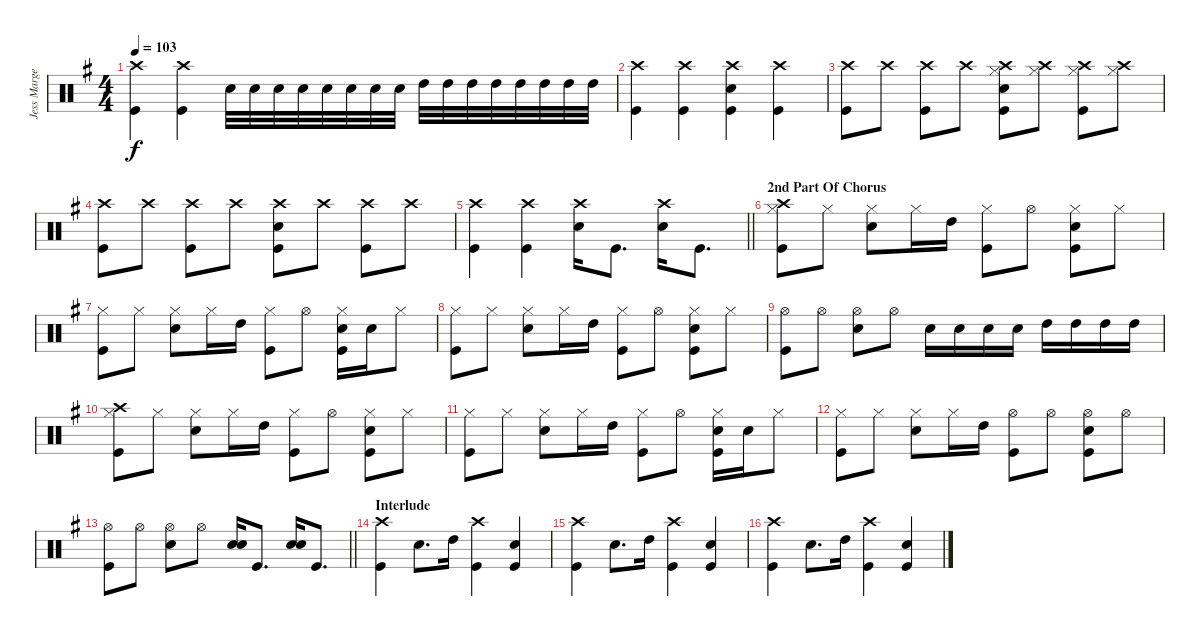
\track ("Jess Margera" "Jess Marge") {instrument percussion}
\staff {score}
\articulation defaults
\ts (4 4)
\tempo 103
\clef neutral
\ks g
("Crash high (hit)" "Kick (hit)").4{dy f} ("Crash high (hit)" "Kick (hit)").4 "Snare (hit) 2".32 "Snare (hit) 2".32 "Snare (hit) 2".32 "Snare (hit) 2".32 "Snare (hit) 2".32 "Snare (hit) 2".32 "Snare (hit) 2".32 "Snare (hit) 2".32 "High Tom (hit)".32 "High Tom (hit)".32 "High Tom (hit)".32 "High Tom (hit)".32 "High Tom (hit)".32 "High Tom (hit)".32 "High Tom (hit)".32 "High Tom (hit)".32 |
("Crash high (hit)" "Kick (hit)").4 ("Crash high (hit)" "Kick (hit)").4 ("Crash high (hit)" "Snare (hit) 2" "Kick (hit)").4 ("Crash high (hit)" "Kick (hit)").4 |
("Crash high (hit)" "Kick (hit)").8 "Crash high (hit)".8 ("Crash high (hit)" "Kick (hit)").8 "Crash high (hit)".8 ("Crash high (hit)" "Hi-Hat (closed)" "Snare (hit) 2" "Kick (hit)").8 ("Crash high (hit)" "Hi-Hat (closed)").8 ("Crash high (hit)" "Hi-Hat (closed)" "Kick (hit)").8 ("Crash high (hit)" "Hi-Hat (closed)").8 |
("Crash high (hit)" "Kick (hit)").8 "Crash high (hit)".8 ("Crash high (hit)" "Kick (hit)").8 "Crash high (hit)".8 ("Crash high (hit)" "Snare (hit) 2" "Kick (hit)").8 "Crash high (hit)".8 ("Crash high (hit)" "Kick (hit)").8 "Crash high (hit)".8 |
\barLineRight lightlight
("Crash high (hit)" "Kick (hit)").4 ("Crash high (hit)" "Kick (hit)").4 ("Crash high (hit)" "Snare (hit) 2").16 "Kick (hit)".8{d} ("Crash high (hit)" "Snare (hit) 2").16 "Kick (hit)".8{d} |
\section ("" "2nd Part Of Chorus")
("Crash high (hit)" "Hi-Hat (closed)" "Kick (hit)").8 "Hi-Hat (closed)".8 ("Hi-Hat (closed)" "Snare (hit) 2").8 "Hi-Hat (closed)".16 "High Tom (hit)".16 ("Hi-Hat (closed)" "Kick (hit)").8 "Hi-Hat (open)".8 ("Hi-Hat (closed)" "Snare (hit) 2" "Kick (hit)").8 "Hi-Hat (closed)".8 |
("Hi-Hat (closed)" "Kick (hit)").8 "Hi-Hat (closed)".8 ("Hi-Hat (closed)" "Snare (hit) 2").8 "Hi-Hat (closed)".16 "High Tom (hit)".16 ("Hi-Hat (closed)" "Kick (hit)").8 "Hi-Hat (open)".8 ("Hi-Hat (closed)" "Snare (hit) 2" "Kick (hit)").16 "Snare (hit) 2".16 "Hi-Hat (closed)".8 |
("Hi-Hat (closed)" "Kick (hit)").8 "Hi-Hat (closed)".8 ("Hi-Hat (closed)" "Snare (hit) 2").8 "Hi-Hat (closed)".16 "High Tom (hit)".16 ("Hi-Hat (closed)" "Kick (hit)").8 "Hi-Hat (open)".8 ("Hi-Hat (closed)" "Snare (hit) 2" "Kick (hit)").8 "Hi-Hat (closed)".8 |
("Hi-Hat (open)" "Kick (hit)").8 "Hi-Hat (open)".8 ("Hi-Hat (open)" "Snare (hit) 2").8 "Hi-Hat (open)".8 "Snare (hit) 2".16 "Snare (hit) 2".16 "Snare (hit) 2".16 "Snare (hit) 2".16 "High Tom (hit)".16 "High Tom (hit)".16 "High Tom (hit)".16 "High Tom (hit)".16 |
("Crash high (hit)" "Hi-Hat (closed)" "Kick (hit)").8 "Hi-Hat (closed)".8 ("Hi-Hat (closed)" "Snare (hit) 2").8 "Hi-Hat (closed)".16 "High Tom (hit)".16 ("Hi-Hat (closed)" "Kick (hit)").8 "Hi-Hat (open)".8 ("Hi-Hat (closed)" "Snare (hit) 2" "Kick (hit)").8 "Hi-Hat (closed)".8 |
("Hi-Hat (closed)" "Kick (hit)").8 "Hi-Hat (closed)".8 ("Hi-Hat (closed)" "Snare (hit) 2").8 "Hi-Hat (closed)".16 "High Tom (hit)".16 ("Hi-Hat (closed)" "Kick (hit)").8 "Hi-Hat (open)".8 ("Hi-Hat (closed)" "Snare (hit) 2" "Kick (hit)").16 "Snare (hit) 2".16 "Hi-Hat (closed)".8 |
("Hi-Hat (closed)" "Kick (hit)").8 "Hi-Hat (closed)".8 ("Hi-Hat (closed)" "Snare (hit) 2").8 "Hi-Hat (closed)".16 "High Tom (hit)".16 ("Hi-Hat (open)" "Kick (hit)").8 "Hi-Hat (open)".8 ("Hi-Hat (open)" "Snare (hit) 2" "Kick (hit)").8 "Hi-Hat (open)".8 |
\barLineRight lightlight
("Hi-Hat (open)" "Kick (hit)").8 "Hi-Hat (open)".8 ("Hi-Hat (open)" "Snare (hit) 2").8 "Hi-Hat (open)".8 ("Snare (hit) 2" "Snare (hit) 2").16 "Kick (hit)".8{d} ("Snare (hit) 2" "Snare (hit) 2").16 "Kick (hit)".8{d} |
\section ("" "Interlude")
("Crash high (hit)" "Kick (hit)").4 "Snare (hit) 2".8{d} "High Tom (hit)".16 ("Crash high (hit)" "Kick (hit)").4 ("Snare (hit) 2" "Kick (hit)").4 |
("Crash high (hit)" "Kick (hit)").4 "Snare (hit) 2".8{d} "High Tom (hit)".16 ("Crash high (hit)" "Kick (hit)").4 ("Snare (hit) 2" "Kick (hit)").4 |
("Crash high (hit)" "Kick (hit)").4 "Snare (hit) 2".8{d} "High Tom (hit)".16 ("Crash high (hit)" "Kick (hit)").4 ("Snare (hit) 2" "Kick (hit)").4
